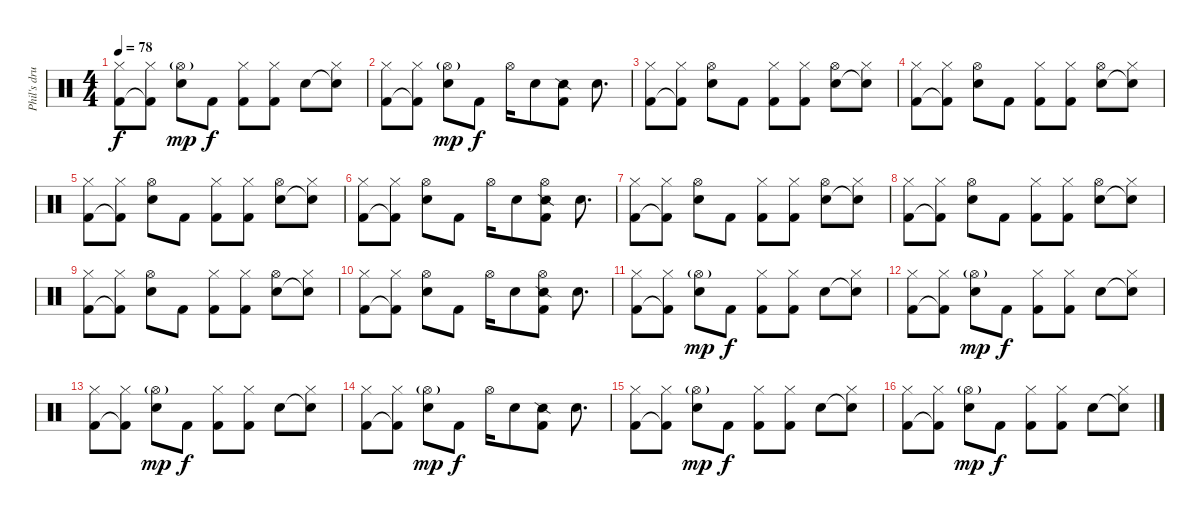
\track ("Phil's drums" "Phil's dru") {instrument percussion}
\staff {score}
\articulation defaults
\ts (4 4)
\tempo 78
\clef neutral
\ks c
("Kick (hit) 2" "Hi-Hat (closed)").8{dy f} ("Kick (hit) 2"{t} "Hi-Hat (closed)").8 ("Snare (hit) 2" "Hi-Hat (open)"{g}).8{dy mp} "Kick (hit) 2".8{dy f} ("Kick (hit) 2" "Hi-Hat (closed)").8 ("Kick (hit) 2" "Hi-Hat (closed)").8 "Snare (hit) 2".8 ("Snare (hit) 2"{t} "Hi-Hat (closed)").8 |
("Kick (hit) 2" "Hi-Hat (closed)").8 ("Kick (hit) 2"{t} "Hi-Hat (closed)").8 ("Snare (hit) 2" "Hi-Hat (open)"{g}).8{dy mp} "Kick (hit) 2".8{dy f} "Hi-Hat (open)".16 "Snare (hit) 2".8 ("Snare (side stick) 2" "Kick (hit) 2").8 "Snare (hit) 2".8{d} |
("Kick (hit) 2" "Hi-Hat (closed)").8 ("Kick (hit) 2"{t} "Hi-Hat (closed)").8 ("Snare (hit) 2" "Hi-Hat (open)").8 "Kick (hit) 2".8 ("Kick (hit) 2" "Hi-Hat (closed)").8 ("Kick (hit) 2" "Hi-Hat (closed)").8 ("Snare (hit) 2" "Hi-Hat (open)").8 ("Snare (hit) 2"{t} "Hi-Hat (closed)").8 |
("Kick (hit) 2" "Hi-Hat (closed)").8 ("Kick (hit) 2"{t} "Hi-Hat (closed)").8 ("Snare (hit) 2" "Hi-Hat (open)").8 "Kick (hit) 2".8 ("Kick (hit) 2" "Hi-Hat (closed)").8 ("Kick (hit) 2" "Hi-Hat (closed)").8 ("Snare (hit) 2" "Hi-Hat (open)").8 ("Snare (hit) 2"{t} "Hi-Hat (closed)").8 |
("Kick (hit) 2" "Hi-Hat (closed)").8 ("Kick (hit) 2"{t} "Hi-Hat (closed)").8 ("Snare (hit) 2" "Hi-Hat (open)").8 "Kick (hit) 2".8 ("Kick (hit) 2" "Hi-Hat (closed)").8 ("Kick (hit) 2" "Hi-Hat (closed)").8 ("Snare (hit) 2" "Hi-Hat (open)").8 ("Snare (hit) 2"{t} "Hi-Hat (closed)").8 |
("Kick (hit) 2" "Hi-Hat (closed)").8 ("Kick (hit) 2"{t} "Hi-Hat (closed)").8 ("Snare (hit) 2" "Hi-Hat (open)").8 "Kick (hit) 2".8 "Hi-Hat (open)".16 "Snare (hit) 2".8 ("Snare (side stick) 2" "Kick (hit) 2" "Hi-Hat (open)").8 "Snare (hit) 2".8{d} |
("Kick (hit) 2" "Hi-Hat (closed)").8 ("Kick (hit) 2"{t} "Hi-Hat (closed)").8 ("Snare (hit) 2" "Hi-Hat (open)").8 "Kick (hit) 2".8 ("Kick (hit) 2" "Hi-Hat (closed)").8 ("Kick (hit) 2" "Hi-Hat (closed)").8 ("Snare (hit) 2" "Hi-Hat (open)").8 ("Snare (hit) 2"{t} "Hi-Hat (closed)").8 |
("Kick (hit) 2" "Hi-Hat (closed)").8 ("Kick (hit) 2"{t} "Hi-Hat (closed)").8 ("Snare (hit) 2" "Hi-Hat (open)").8 "Kick (hit) 2".8 ("Kick (hit) 2" "Hi-Hat (closed)").8 ("Kick (hit) 2" "Hi-Hat (closed)").8 ("Snare (hit) 2" "Hi-Hat (open)").8 ("Snare (hit) 2"{t} "Hi-Hat (closed)").8 |
("Kick (hit) 2" "Hi-Hat (closed)").8 ("Kick (hit) 2"{t} "Hi-Hat (closed)").8 ("Snare (hit) 2" "Hi-Hat (open)").8 "Kick (hit) 2".8 ("Kick (hit) 2" "Hi-Hat (closed)").8 ("Kick (hit) 2" "Hi-Hat (closed)").8 ("Snare (hit) 2" "Hi-Hat (open)").8 ("Snare (hit) 2"{t} "Hi-Hat (closed)").8 |
("Kick (hit) 2" "Hi-Hat (closed)").8 ("Kick (hit) 2"{t} "Hi-Hat (closed)").8 ("Snare (hit) 2" "Hi-Hat (open)").8 "Kick (hit) 2".8 "Hi-Hat (open)".16 "Snare (hit) 2".8 ("Snare (side stick) 2" "Kick (hit) 2" "Hi-Hat (open)").8 "Snare (hit) 2".8{d} |
("Kick (hit) 2" "Hi-Hat (closed)").8 ("Kick (hit) 2"{t} "Hi-Hat (closed)").8 ("Snare (hit) 2" "Hi-Hat (open)"{g}).8{dy mp} "Kick (hit) 2".8{dy f} ("Kick (hit) 2" "Hi-Hat (closed)").8 ("Kick (hit) 2" "Hi-Hat (closed)").8 "Snare (hit) 2".8 ("Snare (hit) 2"{t} "Hi-Hat (closed)").8 |
("Kick (hit) 2" "Hi-Hat (closed)").8 ("Kick (hit) 2"{t} "Hi-Hat (closed)").8 ("Snare (hit) 2" "Hi-Hat (open)"{g}).8{dy mp} "Kick (hit) 2".8{dy f} ("Kick (hit) 2" "Hi-Hat (closed)").8 ("Kick (hit) 2" "Hi-Hat (closed)").8 "Snare (hit) 2".8 ("Snare (hit) 2"{t} "Hi-Hat (closed)").8 |
("Kick (hit) 2" "Hi-Hat (closed)").8 ("Kick (hit) 2"{t} "Hi-Hat (closed)").8 ("Snare (hit) 2" "Hi-Hat (open)"{g}).8{dy mp} "Kick (hit) 2".8{dy f} ("Kick (hit) 2" "Hi-Hat (closed)").8 ("Kick (hit) 2" "Hi-Hat (closed)").8 "Snare (hit) 2".8 ("Snare (hit) 2"{t} "Hi-Hat (closed)").8 |
("Kick (hit) 2" "Hi-Hat (closed)").8 ("Kick (hit) 2"{t} "Hi-Hat (closed)").8 ("Snare (hit) 2" "Hi-Hat (open)"{g}).8{dy mp} "Kick (hit) 2".8{dy f} "Hi-Hat (open)".16 "Snare (hit) 2".8 ("Snare (side stick) 2" "Kick (hit) 2").8 "Snare (hit) 2".8{d} |
("Kick (hit) 2" "Hi-Hat (closed)").8 ("Kick (hit) 2"{t} "Hi-Hat (closed)").8 ("Snare (hit) 2" "Hi-Hat (open)"{g}).8{dy mp} "Kick (hit) 2".8{dy f} ("Kick (hit) 2" "Hi-Hat (closed)").8 ("Kick (hit) 2" "Hi-Hat (closed)").8 "Snare (hit) 2".8 ("Snare (hit) 2"{t} "Hi-Hat (closed)").8 |
("Kick (hit) 2" "Hi-Hat (closed)").8 ("Kick (hit) 2"{t} "Hi-Hat (closed)").8 ("Snare (hit) 2" "Hi-Hat (open)"{g}).8{dy mp} "Kick (hit) 2".8{dy f} ("Kick (hit) 2" "Hi-Hat (closed)").8 ("Kick (hit) 2" "Hi-Hat (closed)").8 "Snare (hit) 2".8 ("Snare (hit) 2"{t} "Hi-Hat (closed)").8
